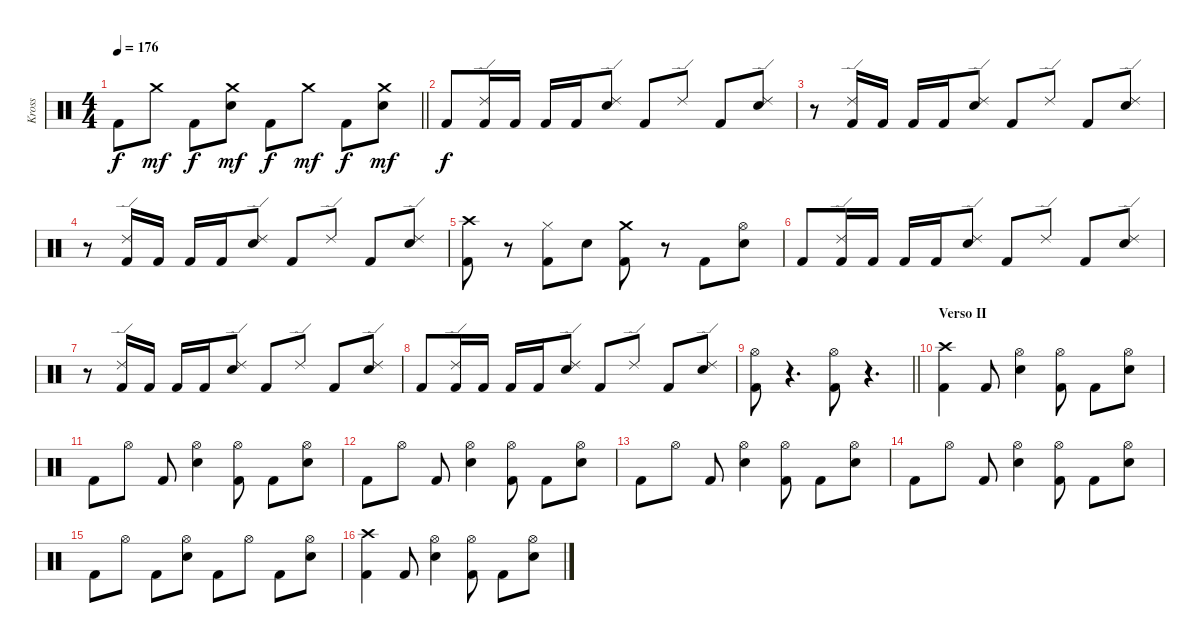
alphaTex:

\track ("Kross" "Kross") {instrument percussion}
\staff {score}
\articulation defaults
\ts (4 4)
\tempo 176
\clef neutral
\barLineRight lightlight
\ks c "Kick (hit) 2".8{dy f} "Crash medium (hit)".8{dy mf} "Kick (hit) 2".8{dy f}
("Crash medium (hit)" "Electric Snare (hit)").8{dy mf} "Kick (hit) 2".8{dy f} "Crash medium (hit)".8{dy mf} "Kick (hit) 2".8{dy f} ("Crash medium (hit)" "Electric Snare (hit)").8{dy mf} |
"Kick (hit) 2".8{dy f} ("Ride (edge) 2" "Kick (hit) 2").16 "Kick (hit) 2".16 "Kick (hit) 2".16 "Kick (hit) 2".16 ("Ride (edge) 2" "Electric Snare (hit)").8 "Kick (hit) 2".8 "Ride (edge) 2".8 "Kick (hit) 2".8 ("Ride (edge) 2" "Electric Snare (hit)").8 |
r.8 ("Ride (edge) 2" "Kick (hit) 2").16 "Kick (hit) 2".16 "Kick (hit) 2".16 "Kick (hit) 2".16 ("Ride (edge) 2" "Electric Snare (hit)").8 "Kick (hit) 2".8 "Ride (edge) 2".8 "Kick (hit) 2".8 ("Ride (edge) 2" "Electric Snare (hit)").8 |
r.8 ("Ride (edge) 2" "Kick (hit) 2").16 "Kick (hit) 2".16 "Kick (hit) 2".16 "Kick (hit) 2".16 ("Ride (edge) 2" "Electric Snare (hit)").8 "Kick (hit) 2".8 "Ride (edge) 2".8 "Kick (hit) 2".8 ("Ride (edge) 2" "Electric Snare (hit)").8 |
("Crash high (hit)" "Kick (hit) 2").8 r.8 ("Hi-Hat (closed)" "Kick (hit) 2").8 "Electric Snare (hit)".8 ("Crash medium (hit)" "Kick (hit) 2").8 r.8 "Kick (hit) 2".8 ("Hi-Hat (open)" "Electric Snare (hit)").8 |
"Kick (hit) 2".8 ("Ride (edge) 2" "Kick (hit) 2").16 "Kick (hit) 2".16 "Kick (hit) 2".16 "Kick (hit) 2".16 ("Ride (edge) 2" "Electric Snare (hit)").8 "Kick (hit) 2".8 "Ride (edge) 2".8 "Kick (hit) 2".8 ("Ride (edge) 2" "Electric Snare (hit)").8 |
r.8 ("Ride (edge) 2" "Kick (hit) 2").16 "Kick (hit) 2".16 "Kick (hit) 2".16 "Kick (hit) 2".16 ("Ride (edge) 2" "Electric Snare (hit)").8 "Kick (hit) 2".8 "Ride (edge) 2".8 "Kick (hit) 2".8 ("Ride (edge) 2" "Electric Snare (hit)").8 |
"Kick (hit) 2".8 ("Ride (edge) 2" "Kick (hit) 2").16 "Kick (hit) 2".16 "Kick (hit) 2".16 "Kick (hit) 2".16 ("Ride (edge) 2" "Electric Snare (hit)").8 "Kick (hit) 2".8 "Ride (edge) 2".8 "Kick (hit) 2".8 ("Ride (edge) 2" "Electric Snare (hit)").8 |
\barLineRight lightlight
("Hi-Hat (open)" "Kick (hit) 2").8 r.4{d} ("Hi-Hat (open)" "Kick (hit) 2").8 r.4{d} |
\section ("" "Verso II")
("Crash high (hit)" "Kick (hit) 2").4 "Kick (hit) 2".8 ("Hi-Hat (open)" "Electric Snare (hit)").4 ("Hi-Hat (open)" "Kick (hit) 2").8 "Kick (hit) 2".8 ("Hi-Hat (open)" "Electric Snare (hit)").8 |
"Kick (hit) 2".8 "Hi-Hat (open)".8 "Kick (hit) 2".8 ("Hi-Hat (open)" "Electric Snare (hit)").4 ("Hi-Hat (open)" "Kick (hit) 2").8 "Kick (hit) 2".8 ("Hi-Hat (open)" "Electric Snare (hit)").8 |
"Kick (hit) 2".8 "Hi-Hat (open)".8 "Kick (hit) 2".8 ("Hi-Hat (open)" "Electric Snare (hit)").4 ("Hi-Hat (open)" "Kick (hit) 2").8 "Kick (hit) 2".8 ("Hi-Hat (open)" "Electric Snare (hit)").8 |
"Kick (hit) 2".8 "Hi-Hat (open)".8 "Kick (hit) 2".8 ("Hi-Hat (open)" "Electric Snare (hit)").4 ("Hi-Hat (open)" "Kick (hit) 2").8 "Kick (hit) 2".8 ("Hi-Hat (open)" "Electric Snare (hit)").8 |
"Kick (hit) 2".8 "Hi-Hat (open)".8 "Kick (hit) 2".8 ("Hi-Hat (open)" "Electric Snare (hit)").4 ("Hi-Hat (open)" "Kick (hit) 2").8 "Kick (hit) 2".8 ("Hi-Hat (open)" "Electric Snare (hit)").8 |
"Kick (hit) 2".8 "Hi-Hat (open)".8 "Kick (hit) 2".8 ("Hi-Hat (open)" "Electric Snare (hit)").8 "Kick (hit) 2".8 "Hi-Hat (open)".8 "Kick (hit) 2".8 ("Hi-Hat (open)" "Electric Snare (hit)").8 |
("Crash high (hit)" "Kick (hit) 2").4 "Kick (hit) 2".8 ("Hi-Hat (open)" "Electric Snare (hit)").4 ("Hi-Hat (open)" "Kick (hit) 2").8 "Kick (hit) 2".8 ("Hi-Hat (open)" "Electric Snare (hit)").8
